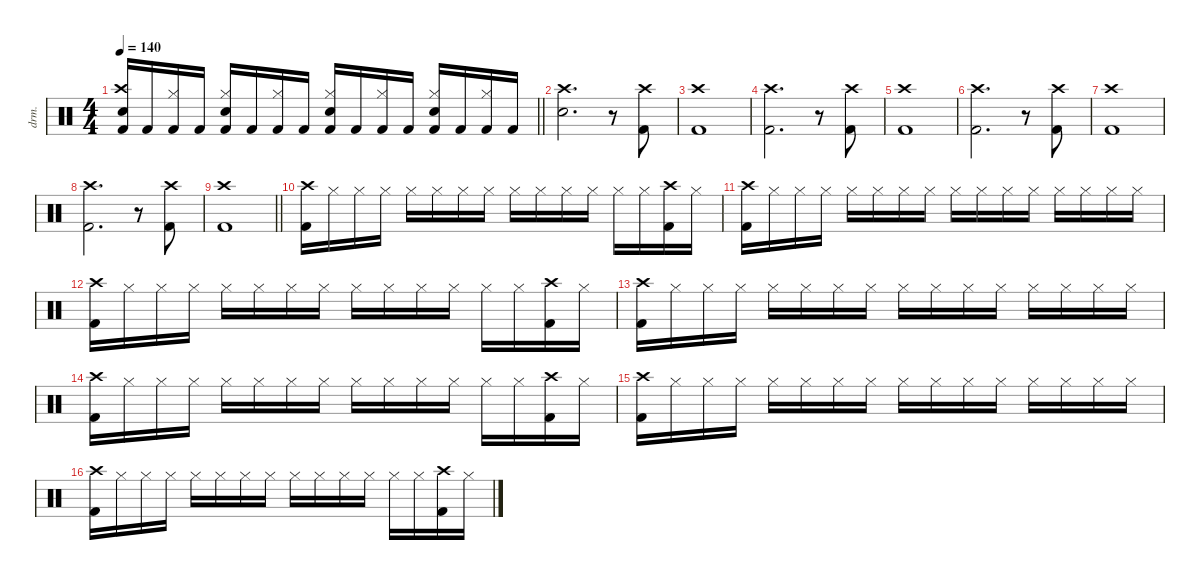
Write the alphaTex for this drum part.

\defaultSystemsLayout 4
\hideDynamics
\bracketExtendMode nobrackets
\otherSystemsTrackNameOrientation horizontal
\track ("Drums" "drm.") {defaultSystemsLayout 4 instrument percussion}
\staff {score}
\articulation defaults
\ts (4 4)
\tempo 140
\clef neutral
\barLineRight lightlight
\ks c
("Crash high (hit)" "Snare (hit) 2" "Kick (hit) 2").16{dy f beam Up} "Kick (hit) 2".16{beam Up} ("Hi-Hat (closed)" "Kick (hit) 2").16{beam Up} "Kick (hit) 2".16{beam Up} ("Hi-Hat (closed)" "Snare (hit) 2" "Kick (hit) 2").16{beam Up} "Kick (hit) 2".16{beam Up} ("Hi-Hat (closed)" "Kick (hit) 2").16{beam Up} "Kick (hit) 2".16{beam Up} ("Hi-Hat (closed)" "Snare (hit) 2" "Kick (hit) 2").16{beam Up} "Kick (hit) 2".16{beam Up} ("Hi-Hat (closed)" "Kick (hit) 2").16{beam Up} "Kick (hit) 2".16{beam Up} ("Hi-Hat (closed)" "Snare (hit) 2" "Kick (hit) 2").16{beam Up} "Kick (hit) 2".16{beam Up} ("Hi-Hat (closed)" "Kick (hit) 2").16{beam Up} "Kick (hit) 2".16{beam Up} |
("Crash high (hit)" "Snare (hit) 2").2{d beam Down} r.8{beam Down} ("Crash high (hit)" "Kick (hit) 2").8{beam Down} |
("Crash high (hit)" "Kick (hit) 2").1{beam Down} |
("Crash high (hit)" "Kick (hit) 2").2{d beam Down} r.8{beam Down} ("Crash high (hit)" "Kick (hit) 2").8{beam Down} |
("Crash high (hit)" "Kick (hit) 2").1{beam Down} |
("Crash high (hit)" "Kick (hit) 2").2{d beam Down} r.8{beam Down} ("Crash high (hit)" "Kick (hit) 2").8{beam Down} |
("Crash high (hit)" "Kick (hit) 2").1{beam Down} |
("Crash high (hit)" "Kick (hit) 2").2{d beam Down} r.8{beam Down} ("Crash high (hit)" "Kick (hit) 2").8{beam Down} |
\barLineRight lightlight
("Crash high (hit)" "Kick (hit) 2").1{beam Down} |
("Crash high (hit)" "Kick (hit) 2").16{beam Down} "Hi-Hat (closed)".16{beam Down} "Hi-Hat (closed)".16{beam Down} "Hi-Hat (closed)".16{beam Down} "Hi-Hat (closed)".16{beam Down} "Hi-Hat (closed)".16{beam Down} "Hi-Hat (closed)".16{beam Down} "Hi-Hat (closed)".16{beam Down} "Hi-Hat (closed)".16{beam Down} "Hi-Hat (closed)".16{beam Down} "Hi-Hat (closed)".16{beam Down} "Hi-Hat (closed)".16{beam Down} "Hi-Hat (closed)".16{beam Down} "Hi-Hat (closed)".16{beam Down} ("Crash high (hit)" "Kick (hit) 2").16{beam Down} "Hi-Hat (closed)".16{beam Down} |
("Crash high (hit)" "Kick (hit) 2").16{beam Down} "Hi-Hat (closed)".16{beam Down} "Hi-Hat (closed)".16{beam Down} "Hi-Hat (closed)".16{beam Down} "Hi-Hat (closed)".16{beam Down} "Hi-Hat (closed)".16{beam Down} "Hi-Hat (closed)".16{beam Down} "Hi-Hat (closed)".16{beam Down} "Hi-Hat (closed)".16{beam Down} "Hi-Hat (closed)".16{beam Down} "Hi-Hat (closed)".16{beam Down} "Hi-Hat (closed)".16{beam Down} "Hi-Hat (closed)".16{beam Down} "Hi-Hat (closed)".16{beam Down} "Hi-Hat (closed)".16{beam Down} "Hi-Hat (closed)".16{beam Down} |
("Crash high (hit)" "Kick (hit) 2").16{beam Down} "Hi-Hat (closed)".16{beam Down} "Hi-Hat (closed)".16{beam Down} "Hi-Hat (closed)".16{beam Down} "Hi-Hat (closed)".16{beam Down} "Hi-Hat (closed)".16{beam Down} "Hi-Hat (closed)".16{beam Down} "Hi-Hat (closed)".16{beam Down} "Hi-Hat (closed)".16{beam Down} "Hi-Hat (closed)".16{beam Down} "Hi-Hat (closed)".16{beam Down} "Hi-Hat (closed)".16{beam Down} "Hi-Hat (closed)".16{beam Down} "Hi-Hat (closed)".16{beam Down} ("Crash high (hit)" "Kick (hit) 2").16{beam Down} "Hi-Hat (closed)".16{beam Down} |
("Crash high (hit)" "Kick (hit) 2").16{beam Down} "Hi-Hat (closed)".16{beam Down} "Hi-Hat (closed)".16{beam Down} "Hi-Hat (closed)".16{beam Down} "Hi-Hat (closed)".16{beam Down} "Hi-Hat (closed)".16{beam Down} "Hi-Hat (closed)".16{beam Down} "Hi-Hat (closed)".16{beam Down} "Hi-Hat (closed)".16{beam Down} "Hi-Hat (closed)".16{beam Down} "Hi-Hat (closed)".16{beam Down} "Hi-Hat (closed)".16{beam Down} "Hi-Hat (closed)".16{beam Down} "Hi-Hat (closed)".16{beam Down} "Hi-Hat (closed)".16{beam Down} "Hi-Hat (closed)".16{beam Down} |
("Crash high (hit)" "Kick (hit) 2").16{beam Down} "Hi-Hat (closed)".16{beam Down} "Hi-Hat (closed)".16{beam Down} "Hi-Hat (closed)".16{beam Down} "Hi-Hat (closed)".16{beam Down} "Hi-Hat (closed)".16{beam Down} "Hi-Hat (closed)".16{beam Down} "Hi-Hat (closed)".16{beam Down} "Hi-Hat (closed)".16{beam Down} "Hi-Hat (closed)".16{beam Down} "Hi-Hat (closed)".16{beam Down} "Hi-Hat (closed)".16{beam Down} "Hi-Hat (closed)".16{beam Down} "Hi-Hat (closed)".16{beam Down} ("Crash high (hit)" "Kick (hit) 2").16{beam Down} "Hi-Hat (closed)".16{beam Down} |
("Crash high (hit)" "Kick (hit) 2").16{beam Down} "Hi-Hat (closed)".16{beam Down} "Hi-Hat (closed)".16{beam Down} "Hi-Hat (closed)".16{beam Down} "Hi-Hat (closed)".16{beam Down} "Hi-Hat (closed)".16{beam Down} "Hi-Hat (closed)".16{beam Down} "Hi-Hat (closed)".16{beam Down} "Hi-Hat (closed)".16{beam Down} "Hi-Hat (closed)".16{beam Down} "Hi-Hat (closed)".16{beam Down} "Hi-Hat (closed)".16{beam Down} "Hi-Hat (closed)".16{beam Down} "Hi-Hat (closed)".16{beam Down} "Hi-Hat (closed)".16{beam Down} "Hi-Hat (closed)".16{beam Down} |
("Crash high (hit)" "Kick (hit) 2").16{beam Down} "Hi-Hat (closed)".16{beam Down} "Hi-Hat (closed)".16{beam Down} "Hi-Hat (closed)".16{beam Down} "Hi-Hat (closed)".16{beam Down} "Hi-Hat (closed)".16{beam Down} "Hi-Hat (closed)".16{beam Down} "Hi-Hat (closed)".16{beam Down} "Hi-Hat (closed)".16{beam Down} "Hi-Hat (closed)".16{beam Down} "Hi-Hat (closed)".16{beam Down} "Hi-Hat (closed)".16{beam Down} "Hi-Hat (closed)".16{beam Down} "Hi-Hat (closed)".16{beam Down} ("Crash high (hit)" "Kick (hit) 2").16{beam Down} "Hi-Hat (closed)".16{beam Down}
